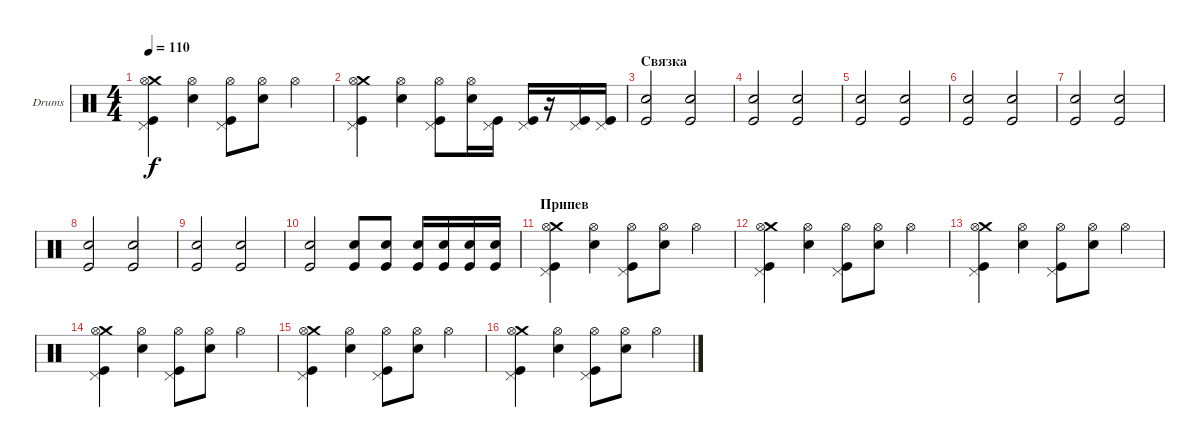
\defaultSystemsLayout 4
\bracketExtendMode groupsimilarinstruments
\firstSystemTrackNameOrientation horizontal
\otherSystemsTrackNameOrientation horizontal
\track ("Е. Кулаков" "Drums") {instrument percussion}
\staff {score}
\articulation defaults
\ts (4 4)
\tempo 110
\clef neutral
\ks c
("Crash medium (hit)" "Pedal Hi-Hat (hit)" "Kick (hit)" "Hi-Hat (open)").4{dy f} ("Snare (hit) 2" "Hi-Hat (open)").4 ("Pedal Hi-Hat (hit)" "Kick (hit)" "Hi-Hat (open)").8 ("Snare (hit) 2" "Hi-Hat (open)").8 "Hi-Hat (open)".4 |
("Crash medium (hit)" "Pedal Hi-Hat (hit)" "Kick (hit)" "Hi-Hat (open)").4 ("Snare (hit) 2" "Hi-Hat (open)").4 ("Pedal Hi-Hat (hit)" "Kick (hit)" "Hi-Hat (open)").8 ("Snare (hit) 2" "Hi-Hat (open)").16 ("Pedal Hi-Hat (hit)" "Kick (hit)").16 ("Pedal Hi-Hat (hit)" "Kick (hit)").16 r.16 ("Pedal Hi-Hat (hit)" "Kick (hit)").16 ("Pedal Hi-Hat (hit)" "Kick (hit)").16 |
\section ("" "Связка")
("Kick (hit)" "Snare (hit) 2").2 ("Kick (hit)" "Snare (hit) 2").2 |
("Kick (hit)" "Snare (hit) 2").2 ("Kick (hit)" "Snare (hit) 2").2 |
("Kick (hit)" "Snare (hit) 2").2 ("Kick (hit)" "Snare (hit) 2").2 |
("Kick (hit)" "Snare (hit) 2").2 ("Kick (hit)" "Snare (hit) 2").2 |
("Kick (hit)" "Snare (hit) 2").2 ("Kick (hit)" "Snare (hit) 2").2 |
("Kick (hit)" "Snare (hit) 2").2 ("Kick (hit)" "Snare (hit) 2").2 |
("Kick (hit)" "Snare (hit) 2").2 ("Kick (hit)" "Snare (hit) 2").2 |
("Kick (hit)" "Snare (hit) 2").2 ("Kick (hit)" "Snare (hit) 2").8 ("Kick (hit)" "Snare (hit) 2").8 ("Kick (hit)" "Snare (hit) 2").16 ("Kick (hit)" "Snare (hit) 2").16 ("Kick (hit)" "Snare (hit) 2").16 ("Kick (hit)" "Snare (hit) 2").16 |
\section ("" "Припев")
("Crash medium (hit)" "Pedal Hi-Hat (hit)" "Kick (hit)" "Hi-Hat (open)").4 ("Snare (hit) 2" "Hi-Hat (open)").4 ("Pedal Hi-Hat (hit)" "Kick (hit)" "Hi-Hat (open)").8 ("Snare (hit) 2" "Hi-Hat (open)").8 "Hi-Hat (open)".4 |
("Crash medium (hit)" "Pedal Hi-Hat (hit)" "Kick (hit)" "Hi-Hat (open)").4 ("Snare (hit) 2" "Hi-Hat (open)").4 ("Pedal Hi-Hat (hit)" "Kick (hit)" "Hi-Hat (open)").8 ("Snare (hit) 2" "Hi-Hat (open)").8 "Hi-Hat (open)".4 |
("Crash medium (hit)" "Pedal Hi-Hat (hit)" "Kick (hit)" "Hi-Hat (open)").4 ("Snare (hit) 2" "Hi-Hat (open)").4 ("Pedal Hi-Hat (hit)" "Kick (hit)" "Hi-Hat (open)").8 ("Snare (hit) 2" "Hi-Hat (open)").8 "Hi-Hat (open)".4 |
("Crash medium (hit)" "Pedal Hi-Hat (hit)" "Kick (hit)" "Hi-Hat (open)").4 ("Snare (hit) 2" "Hi-Hat (open)").4 ("Pedal Hi-Hat (hit)" "Kick (hit)" "Hi-Hat (open)").8 ("Snare (hit) 2" "Hi-Hat (open)").8 "Hi-Hat (open)".4 |
("Crash medium (hit)" "Pedal Hi-Hat (hit)" "Kick (hit)" "Hi-Hat (open)").4 ("Snare (hit) 2" "Hi-Hat (open)").4 ("Pedal Hi-Hat (hit)" "Kick (hit)" "Hi-Hat (open)").8 ("Snare (hit) 2" "Hi-Hat (open)").8 "Hi-Hat (open)".4 |
("Crash medium (hit)" "Pedal Hi-Hat (hit)" "Kick (hit)" "Hi-Hat (open)").4 ("Snare (hit) 2" "Hi-Hat (open)").4 ("Pedal Hi-Hat (hit)" "Kick (hit)" "Hi-Hat (open)").8 ("Snare (hit) 2" "Hi-Hat (open)").8 "Hi-Hat (open)".4
